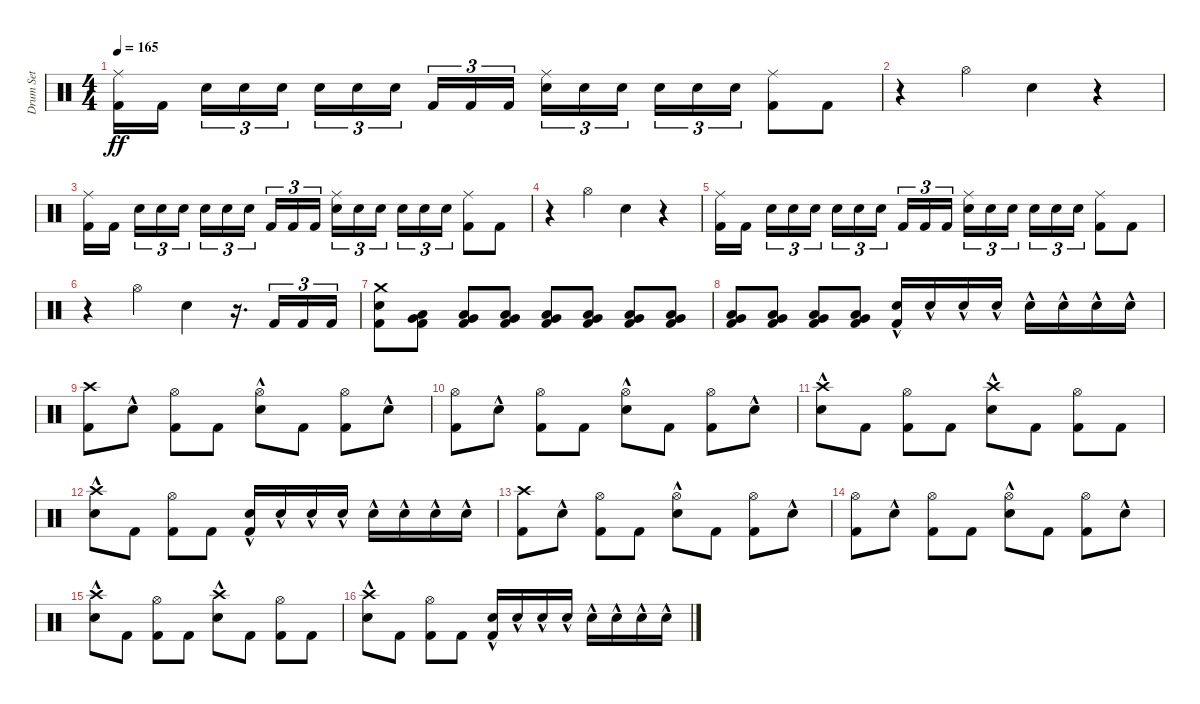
\track ("Drum Set" "Drum Set") {instrument percussion}
\staff {score}
\articulation defaults
\ts (4 4)
\tempo 165
\clef neutral
\ks c
("Ride (middle)" "Kick (hit) 2").16{dy ff} "Kick (hit) 2".16{beam splitsecondary} "Snare (hit) 2".16{tu (3 2)} "Snare (hit) 2".16{tu (3 2)} "Snare (hit) 2".16{tu (3 2)} "Snare (hit) 2".16{tu (3 2)} "Snare (hit) 2".16{tu (3 2)} "Snare (hit) 2".16{tu (3 2) beam splitsecondary} "Kick (hit) 2".16{tu (3 2)} "Kick (hit) 2".16{tu (3 2)} "Kick (hit) 2".16{tu (3 2)} ("Ride (middle)" "Snare (hit) 2").16{tu (3 2)} "Snare (hit) 2".16{tu (3 2)} "Snare (hit) 2".16{tu (3 2) beam splitsecondary} "Snare (hit) 2".16{tu (3 2)} "Snare (hit) 2".16{tu (3 2)} "Snare (hit) 2".16{tu (3 2)} ("Ride (middle)" "Kick (hit) 2").8 "Kick (hit) 2".8 |
r.4 "Hi-Hat (open)".4 "Snare (hit) 2".4 r.4 |
("Ride (middle)" "Kick (hit) 2").16 "Kick (hit) 2".16{beam splitsecondary} "Snare (hit) 2".16{tu (3 2)} "Snare (hit) 2".16{tu (3 2)} "Snare (hit) 2".16{tu (3 2)} "Snare (hit) 2".16{tu (3 2)} "Snare (hit) 2".16{tu (3 2)} "Snare (hit) 2".16{tu (3 2) beam splitsecondary} "Kick (hit) 2".16{tu (3 2)} "Kick (hit) 2".16{tu (3 2)} "Kick (hit) 2".16{tu (3 2)} ("Ride (middle)" "Snare (hit) 2").16{tu (3 2)} "Snare (hit) 2".16{tu (3 2)} "Snare (hit) 2".16{tu (3 2) beam splitsecondary} "Snare (hit) 2".16{tu (3 2)} "Snare (hit) 2".16{tu (3 2)} "Snare (hit) 2".16{tu (3 2)} ("Ride (middle)" "Kick (hit) 2").8 "Kick (hit) 2".8 |
r.4 "Hi-Hat (open)".4 "Snare (hit) 2".4 r.4 |
("Ride (middle)" "Kick (hit) 2").16 "Kick (hit) 2".16{beam splitsecondary} "Snare (hit) 2".16{tu (3 2)} "Snare (hit) 2".16{tu (3 2)} "Snare (hit) 2".16{tu (3 2)} "Snare (hit) 2".16{tu (3 2)} "Snare (hit) 2".16{tu (3 2)} "Snare (hit) 2".16{tu (3 2) beam splitsecondary} "Kick (hit) 2".16{tu (3 2)} "Kick (hit) 2".16{tu (3 2)} "Kick (hit) 2".16{tu (3 2)} ("Ride (middle)" "Snare (hit) 2").16{tu (3 2)} "Snare (hit) 2".16{tu (3 2)} "Snare (hit) 2".16{tu (3 2) beam splitsecondary} "Snare (hit) 2".16{tu (3 2)} "Snare (hit) 2".16{tu (3 2)} "Snare (hit) 2".16{tu (3 2)} ("Ride (middle)" "Kick (hit) 2").8 "Kick (hit) 2".8 |
r.4 "Hi-Hat (open)".4 "Snare (hit) 2".4 r.16{d} "Kick (hit) 2".16{tu (3 2)} "Kick (hit) 2".16{tu (3 2)} "Kick (hit) 2".16{tu (3 2)} |
("Crash medium (hit)" "Snare (hit) 2" "Kick (hit) 2").8 ("Very Low Tom (hit)" "Low Floor Tom (hit)" "Kick (hit) 2").8 ("Very Low Tom (hit)" "Low Floor Tom (hit)" "Kick (hit) 2").8 ("Very Low Tom (hit)" "Low Floor Tom (hit)" "Kick (hit) 2").8 ("Very Low Tom (hit)" "Low Floor Tom (hit)" "Kick (hit) 2").8 ("Very Low Tom (hit)" "Low Floor Tom (hit)" "Kick (hit) 2").8 ("Very Low Tom (hit)" "Low Floor Tom (hit)" "Kick (hit) 2").8 ("Very Low Tom (hit)" "Low Floor Tom (hit)" "Kick (hit) 2").8 |
("Very Low Tom (hit)" "Low Floor Tom (hit)" "Kick (hit) 2").8 ("Very Low Tom (hit)" "Low Floor Tom (hit)" "Kick (hit) 2").8 ("Very Low Tom (hit)" "Low Floor Tom (hit)" "Kick (hit) 2").8 ("Very Low Tom (hit)" "Low Floor Tom (hit)" "Kick (hit) 2").8 ("Snare (hit) 2"{hac} "Kick (hit) 2").16 "Snare (hit) 2"{hac}.16 "Snare (hit) 2"{hac}.16 "Snare (hit) 2"{hac}.16 "Snare (hit) 2"{hac}.16 "Snare (hit) 2"{hac}.16 "Snare (hit) 2"{hac}.16 "Snare (hit) 2"{hac}.16 |
("Crash high (hit)" "Kick (hit) 2").8 "Snare (hit) 2"{hac}.8 ("Hi-Hat (open)" "Kick (hit) 2").8 "Kick (hit) 2".8 ("Hi-Hat (open)" "Snare (hit) 2"{hac}).8 "Kick (hit) 2".8 ("Hi-Hat (open)" "Kick (hit) 2").8 "Snare (hit) 2"{hac}.8 |
("Hi-Hat (open)" "Kick (hit) 2").8 "Snare (hit) 2"{hac}.8 ("Hi-Hat (open)" "Kick (hit) 2").8 "Kick (hit) 2".8 ("Hi-Hat (open)" "Snare (hit) 2"{hac}).8 "Kick (hit) 2".8 ("Hi-Hat (open)" "Kick (hit) 2").8 "Snare (hit) 2"{hac}.8 |
("Crash high (hit)" "Snare (hit) 2"{hac}).8 "Kick (hit) 2".8 ("Hi-Hat (open)" "Kick (hit) 2").8 "Kick (hit) 2".8 ("Crash high (hit)" "Snare (hit) 2"{hac}).8 "Kick (hit) 2".8 ("Hi-Hat (open)" "Kick (hit) 2").8 "Kick (hit) 2".8 |
("Crash high (hit)" "Snare (hit) 2"{hac}).8 "Kick (hit) 2".8 ("Hi-Hat (open)" "Kick (hit) 2").8 "Kick (hit) 2".8 ("Snare (hit) 2"{hac} "Kick (hit) 2").16 "Snare (hit) 2"{hac}.16 "Snare (hit) 2"{hac}.16 "Snare (hit) 2"{hac}.16 "Snare (hit) 2"{hac}.16 "Snare (hit) 2"{hac}.16 "Snare (hit) 2"{hac}.16 "Snare (hit) 2"{hac}.16 |
("Crash high (hit)" "Kick (hit) 2").8 "Snare (hit) 2"{hac}.8 ("Hi-Hat (open)" "Kick (hit) 2").8 "Kick (hit) 2".8 ("Hi-Hat (open)" "Snare (hit) 2"{hac}).8 "Kick (hit) 2".8 ("Hi-Hat (open)" "Kick (hit) 2").8 "Snare (hit) 2"{hac}.8 |
("Hi-Hat (open)" "Kick (hit) 2").8 "Snare (hit) 2"{hac}.8 ("Hi-Hat (open)" "Kick (hit) 2").8 "Kick (hit) 2".8 ("Hi-Hat (open)" "Snare (hit) 2"{hac}).8 "Kick (hit) 2".8 ("Hi-Hat (open)" "Kick (hit) 2").8 "Snare (hit) 2"{hac}.8 |
("Crash high (hit)" "Snare (hit) 2"{hac}).8 "Kick (hit) 2".8 ("Hi-Hat (open)" "Kick (hit) 2").8 "Kick (hit) 2".8 ("Crash high (hit)" "Snare (hit) 2"{hac}).8 "Kick (hit) 2".8 ("Hi-Hat (open)" "Kick (hit) 2").8 "Kick (hit) 2".8 |
("Crash high (hit)" "Snare (hit) 2"{hac}).8 "Kick (hit) 2".8 ("Hi-Hat (open)" "Kick (hit) 2").8 "Kick (hit) 2".8 ("Snare (hit) 2"{hac} "Kick (hit) 2").16 "Snare (hit) 2"{hac}.16 "Snare (hit) 2"{hac}.16 "Snare (hit) 2"{hac}.16 "Snare (hit) 2"{hac}.16 "Snare (hit) 2"{hac}.16 "Snare (hit) 2"{hac}.16 "Snare (hit) 2"{hac}.16
